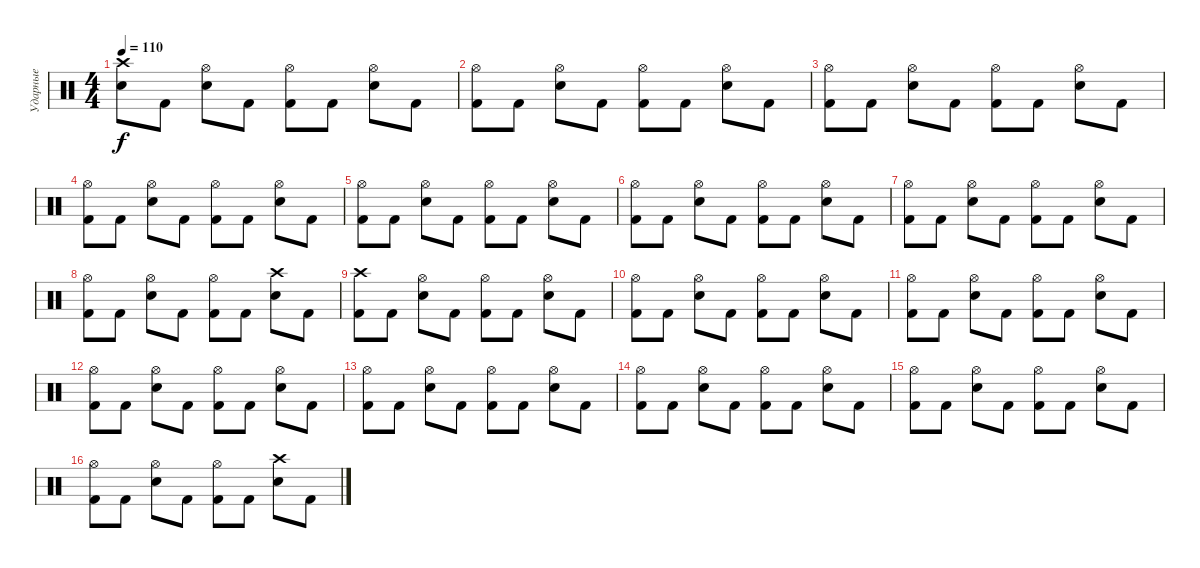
\track ("Ударные" "Ударные") {instrument percussion}
\staff {score}
\articulation defaults
\ts (4 4)
\tempo 110
\clef neutral
\ks c
("Crash high (hit)" "Electric Snare (hit)").8{dy f} "Kick (hit) 2".8 ("Electric Snare (hit)" "Hi-Hat (open)").8 "Kick (hit) 2".8 ("Kick (hit) 2" "Hi-Hat (open)").8 "Kick (hit) 2".8 ("Electric Snare (hit)" "Hi-Hat (open)").8 "Kick (hit) 2".8 |
("Kick (hit) 2" "Hi-Hat (open)").8 "Kick (hit) 2".8 ("Electric Snare (hit)" "Hi-Hat (open)").8 "Kick (hit) 2".8 ("Kick (hit) 2" "Hi-Hat (open)").8 "Kick (hit) 2".8 ("Electric Snare (hit)" "Hi-Hat (open)").8 "Kick (hit) 2".8 |
("Kick (hit) 2" "Hi-Hat (open)").8 "Kick (hit) 2".8 ("Electric Snare (hit)" "Hi-Hat (open)").8 "Kick (hit) 2".8 ("Kick (hit) 2" "Hi-Hat (open)").8 "Kick (hit) 2".8 ("Electric Snare (hit)" "Hi-Hat (open)").8 "Kick (hit) 2".8 |
("Kick (hit) 2" "Hi-Hat (open)").8 "Kick (hit) 2".8 ("Electric Snare (hit)" "Hi-Hat (open)").8 "Kick (hit) 2".8 ("Kick (hit) 2" "Hi-Hat (open)").8 "Kick (hit) 2".8 ("Electric Snare (hit)" "Hi-Hat (open)").8 "Kick (hit) 2".8 |
("Kick (hit) 2" "Hi-Hat (open)").8 "Kick (hit) 2".8 ("Electric Snare (hit)" "Hi-Hat (open)").8 "Kick (hit) 2".8 ("Kick (hit) 2" "Hi-Hat (open)").8 "Kick (hit) 2".8 ("Electric Snare (hit)" "Hi-Hat (open)").8 "Kick (hit) 2".8 |
("Kick (hit) 2" "Hi-Hat (open)").8 "Kick (hit) 2".8 ("Electric Snare (hit)" "Hi-Hat (open)").8 "Kick (hit) 2".8 ("Kick (hit) 2" "Hi-Hat (open)").8 "Kick (hit) 2".8 ("Electric Snare (hit)" "Hi-Hat (open)").8 "Kick (hit) 2".8 |
("Kick (hit) 2" "Hi-Hat (open)").8 "Kick (hit) 2".8 ("Electric Snare (hit)" "Hi-Hat (open)").8 "Kick (hit) 2".8 ("Kick (hit) 2" "Hi-Hat (open)").8 "Kick (hit) 2".8 ("Electric Snare (hit)" "Hi-Hat (open)").8 "Kick (hit) 2".8 |
("Kick (hit) 2" "Hi-Hat (open)").8 "Kick (hit) 2".8 ("Electric Snare (hit)" "Hi-Hat (open)").8 "Kick (hit) 2".8 ("Kick (hit) 2" "Hi-Hat (open)").8 "Kick (hit) 2".8 ("Electric Snare (hit)" "Crash high (hit)").8 "Kick (hit) 2".8 |
("Crash high (hit)" "Kick (hit) 2").8 "Kick (hit) 2".8 ("Electric Snare (hit)" "Hi-Hat (open)").8 "Kick (hit) 2".8 ("Kick (hit) 2" "Hi-Hat (open)").8 "Kick (hit) 2".8 ("Electric Snare (hit)" "Hi-Hat (open)").8 "Kick (hit) 2".8 |
("Kick (hit) 2" "Hi-Hat (open)").8 "Kick (hit) 2".8 ("Electric Snare (hit)" "Hi-Hat (open)").8 "Kick (hit) 2".8 ("Kick (hit) 2" "Hi-Hat (open)").8 "Kick (hit) 2".8 ("Electric Snare (hit)" "Hi-Hat (open)").8 "Kick (hit) 2".8 |
("Kick (hit) 2" "Hi-Hat (open)").8 "Kick (hit) 2".8 ("Electric Snare (hit)" "Hi-Hat (open)").8 "Kick (hit) 2".8 ("Kick (hit) 2" "Hi-Hat (open)").8 "Kick (hit) 2".8 ("Electric Snare (hit)" "Hi-Hat (open)").8 "Kick (hit) 2".8 |
("Kick (hit) 2" "Hi-Hat (open)").8 "Kick (hit) 2".8 ("Electric Snare (hit)" "Hi-Hat (open)").8 "Kick (hit) 2".8 ("Kick (hit) 2" "Hi-Hat (open)").8 "Kick (hit) 2".8 ("Electric Snare (hit)" "Hi-Hat (open)").8 "Kick (hit) 2".8 |
("Kick (hit) 2" "Hi-Hat (open)").8 "Kick (hit) 2".8 ("Electric Snare (hit)" "Hi-Hat (open)").8 "Kick (hit) 2".8 ("Kick (hit) 2" "Hi-Hat (open)").8 "Kick (hit) 2".8 ("Electric Snare (hit)" "Hi-Hat (open)").8 "Kick (hit) 2".8 |
("Kick (hit) 2" "Hi-Hat (open)").8 "Kick (hit) 2".8 ("Electric Snare (hit)" "Hi-Hat (open)").8 "Kick (hit) 2".8 ("Kick (hit) 2" "Hi-Hat (open)").8 "Kick (hit) 2".8 ("Electric Snare (hit)" "Hi-Hat (open)").8 "Kick (hit) 2".8 |
("Kick (hit) 2" "Hi-Hat (open)").8 "Kick (hit) 2".8 ("Electric Snare (hit)" "Hi-Hat (open)").8 "Kick (hit) 2".8 ("Kick (hit) 2" "Hi-Hat (open)").8 "Kick (hit) 2".8 ("Electric Snare (hit)" "Hi-Hat (open)").8 "Kick (hit) 2".8 |
("Kick (hit) 2" "Hi-Hat (open)").8 "Kick (hit) 2".8 ("Electric Snare (hit)" "Hi-Hat (open)").8 "Kick (hit) 2".8 ("Kick (hit) 2" "Hi-Hat (open)").8 "Kick (hit) 2".8 ("Electric Snare (hit)" "Crash high (hit)").8 "Kick (hit) 2".8
